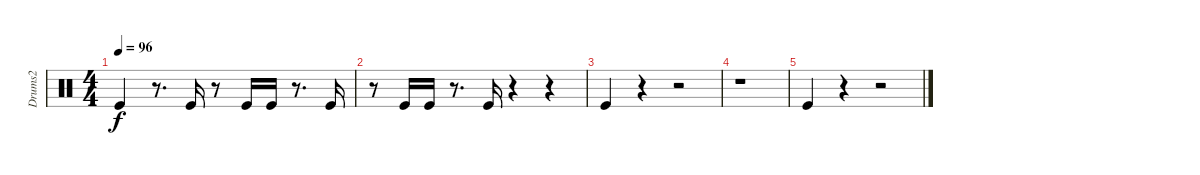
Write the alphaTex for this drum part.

\track ("Drums2" "Drums2") {instrument percussion}
\staff {score}
\articulation defaults
\ts (4 4)
\tempo 96
\clef neutral
\ks c "Kick (hit)".4{dy f}
r.8{d} "Kick (hit)".16 r.8 "Kick (hit)".16 "Kick (hit)".16 r.8{d} "Kick (hit)".16 |
r.8 "Kick (hit)".16 "Kick (hit)".16 r.8{d} "Kick (hit)".16 r.4 r.4 |
"Kick (hit)".4 r.4 r.2 |
r.1 |
"Kick (hit)".4 r.4 r.2
